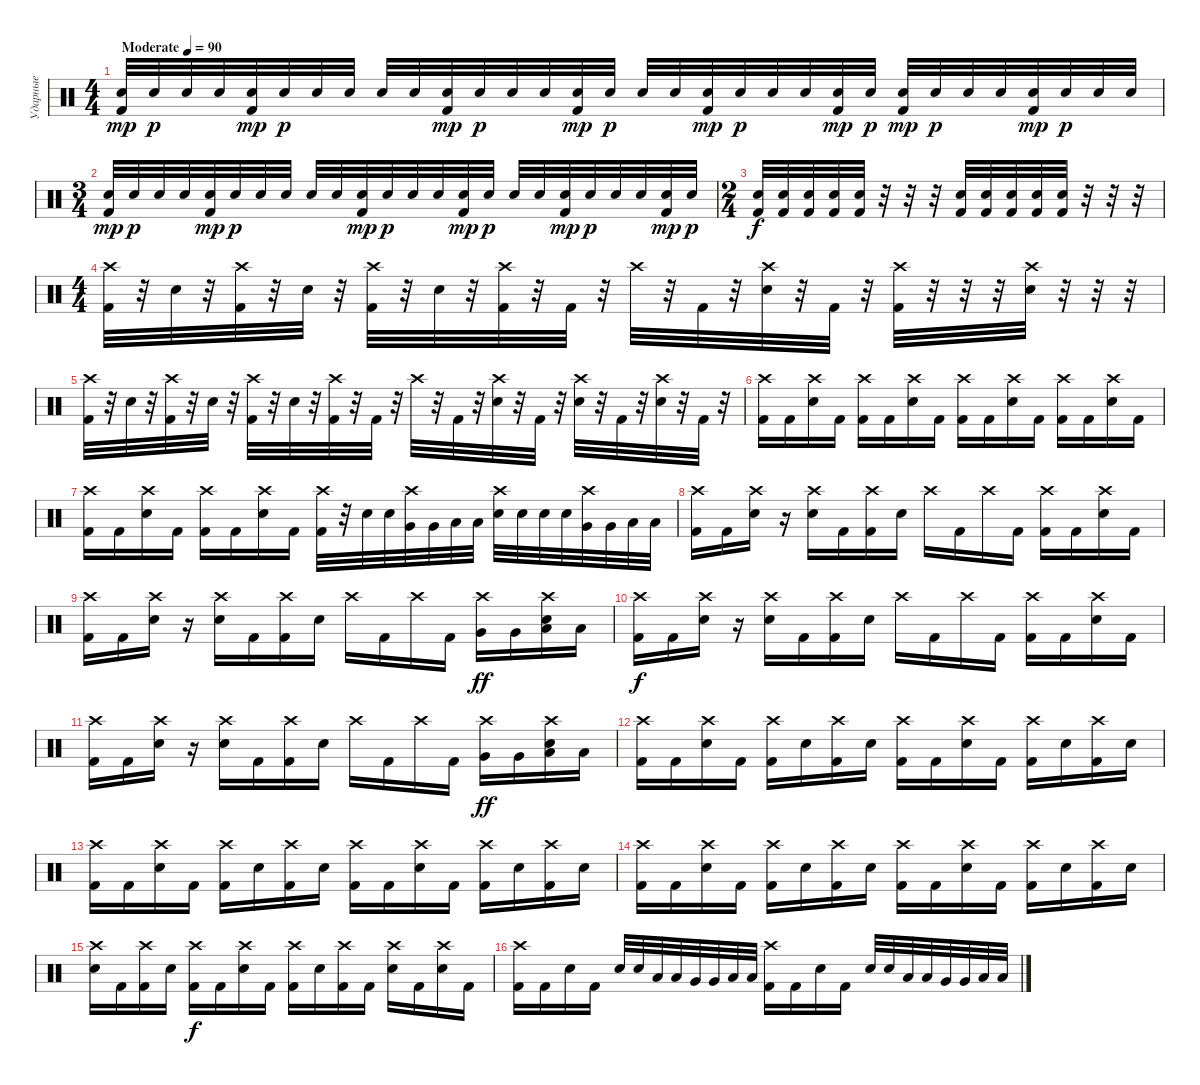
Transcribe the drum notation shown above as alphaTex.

\track ("Ударные" "Ударные") {instrument percussion}
\staff {score}
\articulation defaults
\ts (4 4)
\tempo (90 "Moderate")
\clef neutral
\ks c
("Snare (hit) 2" "Kick (hit) 2").32{dy mp} "Snare (hit) 2".32{dy p} "Snare (hit) 2".32 "Snare (hit) 2".32 ("Snare (hit) 2" "Kick (hit) 2").32{dy mp} "Snare (hit) 2".32{dy p} "Snare (hit) 2".32 "Snare (hit) 2".32 "Snare (hit) 2".32 "Snare (hit) 2".32 ("Snare (hit) 2" "Kick (hit) 2").32{dy mp} "Snare (hit) 2".32{dy p} "Snare (hit) 2".32 "Snare (hit) 2".32 ("Snare (hit) 2" "Kick (hit) 2").32{dy mp} "Snare (hit) 2".32{dy p} "Snare (hit) 2".32 "Snare (hit) 2".32 ("Snare (hit) 2" "Kick (hit) 2").32{dy mp} "Snare (hit) 2".32{dy p} "Snare (hit) 2".32 "Snare (hit) 2".32 ("Snare (hit) 2" "Kick (hit) 2").32{dy mp} "Snare (hit) 2".32{dy p} ("Snare (hit) 2" "Kick (hit) 2").32{dy mp} "Snare (hit) 2".32{dy p} "Snare (hit) 2".32 "Snare (hit) 2".32 ("Snare (hit) 2" "Kick (hit) 2").32{dy mp} "Snare (hit) 2".32{dy p} "Snare (hit) 2".32 "Snare (hit) 2".32 |
\ts (3 4)
("Snare (hit) 2" "Kick (hit) 2").32{dy mp} "Snare (hit) 2".32{dy p} "Snare (hit) 2".32 "Snare (hit) 2".32 ("Snare (hit) 2" "Kick (hit) 2").32{dy mp} "Snare (hit) 2".32{dy p} "Snare (hit) 2".32 "Snare (hit) 2".32 "Snare (hit) 2".32 "Snare (hit) 2".32 ("Snare (hit) 2" "Kick (hit) 2").32{dy mp} "Snare (hit) 2".32{dy p} "Snare (hit) 2".32 "Snare (hit) 2".32 ("Snare (hit) 2" "Kick (hit) 2").32{dy mp} "Snare (hit) 2".32{dy p} "Snare (hit) 2".32 "Snare (hit) 2".32 ("Snare (hit) 2" "Kick (hit) 2").32{dy mp} "Snare (hit) 2".32{dy p} "Snare (hit) 2".32 "Snare (hit) 2".32 ("Snare (hit) 2" "Kick (hit) 2").32{dy mp} "Snare (hit) 2".32{dy p} |
\ts (2 4)
("Kick (hit) 2" "Snare (hit) 2").32{dy f} ("Kick (hit) 2" "Snare (hit) 2").32 ("Kick (hit) 2" "Snare (hit) 2").32 ("Kick (hit) 2" "Snare (hit) 2").32 ("Kick (hit) 2" "Snare (hit) 2").32 r.32 r.32 r.32 ("Kick (hit) 2" "Snare (hit) 2").32 ("Kick (hit) 2" "Snare (hit) 2").32 ("Kick (hit) 2" "Snare (hit) 2").32 ("Kick (hit) 2" "Snare (hit) 2").32 ("Kick (hit) 2" "Snare (hit) 2").32 r.32 r.32 r.32 |
\ts (4 4)
("Crash high (hit)" "Kick (hit) 2").32 r.32 "Snare (hit) 2".32 r.32 ("Crash high (hit)" "Kick (hit) 2").32 r.32 "Snare (hit) 2".32 r.32 ("Crash high (hit)" "Kick (hit) 2").32 r.32 "Snare (hit) 2".32 r.32 ("Crash high (hit)" "Kick (hit) 2").32 r.32 "Kick (hit) 2".32 r.32 "Crash high (hit)".32 r.32 "Kick (hit) 2".32 r.32 ("Crash high (hit)" "Snare (hit) 2").32 r.32 "Kick (hit) 2".32 r.32 ("Crash high (hit)" "Kick (hit) 2").32 r.32 r.32 r.32 ("Crash high (hit)" "Snare (hit) 2").32 r.32 r.32 r.32 |
("Crash high (hit)" "Kick (hit) 2").32 r.32 "Snare (hit) 2".32 r.32 ("Crash high (hit)" "Kick (hit) 2").32 r.32 "Snare (hit) 2".32 r.32 ("Crash high (hit)" "Kick (hit) 2").32 r.32 "Snare (hit) 2".32 r.32 ("Crash high (hit)" "Kick (hit) 2").32 r.32 "Kick (hit) 2".32 r.32 "Crash high (hit)".32 r.32 "Kick (hit) 2".32 r.32 ("Crash high (hit)" "Snare (hit) 2").32 r.32 "Kick (hit) 2".32 r.32 ("Crash high (hit)" "Snare (hit) 2").32 r.32 "Kick (hit) 2".32 r.32 ("Crash high (hit)" "Snare (hit) 2").32 r.32 "Kick (hit) 2".32 r.32 |
("Crash high (hit)" "Kick (hit) 2").16 "Kick (hit) 2".16 ("Crash high (hit)" "Snare (hit) 2").16 "Kick (hit) 2".16 ("Crash high (hit)" "Kick (hit) 2").16 "Kick (hit) 2".16 ("Crash high (hit)" "Snare (hit) 2").16 "Kick (hit) 2".16 ("Crash high (hit)" "Kick (hit) 2").16 "Kick (hit) 2".16 ("Crash high (hit)" "Snare (hit) 2").16 "Kick (hit) 2".16 ("Crash high (hit)" "Kick (hit) 2").16 "Kick (hit) 2".16 ("Crash high (hit)" "Snare (hit) 2").16 "Kick (hit) 2".16 |
("Crash high (hit)" "Kick (hit) 2").16 "Kick (hit) 2".16 ("Crash high (hit)" "Snare (hit) 2").16 "Kick (hit) 2".16 ("Crash high (hit)" "Kick (hit) 2").16 "Kick (hit) 2".16 ("Crash high (hit)" "Snare (hit) 2").16 "Kick (hit) 2".16 ("Crash high (hit)" "Kick (hit) 2").32 r.32 "Snare (hit) 2".32 "Snare (hit) 2".32 ("Crash high (hit)" "Very Low Tom (hit)").32 "Very Low Tom (hit)".32 "Low Floor Tom (hit)".32 "Low Floor Tom (hit)".32 ("Crash high (hit)" "Snare (hit) 2").32 "Snare (hit) 2".32 "Snare (hit) 2".32 "Snare (hit) 2".32 ("Crash high (hit)" "Very Low Tom (hit)").32 "Very Low Tom (hit)".32 "Low Floor Tom (hit)".32 "Low Floor Tom (hit)".32 |
("Crash high (hit)" "Kick (hit) 2").16 "Kick (hit) 2".16 ("Crash high (hit)" "Snare (hit) 2").16 r.16 ("Crash high (hit)" "Snare (hit) 2").16 "Kick (hit) 2".16 ("Crash high (hit)" "Kick (hit) 2").16 "Snare (hit) 2".16 "Crash high (hit)".16 "Kick (hit) 2".16 "Crash high (hit)".16 "Kick (hit) 2".16 ("Crash high (hit)" "Kick (hit) 2").16 "Kick (hit) 2".16 ("Crash high (hit)" "Snare (hit) 2").16 "Kick (hit) 2".16 |
("Crash high (hit)" "Kick (hit) 2").16 "Kick (hit) 2".16 ("Crash high (hit)" "Snare (hit) 2").16 r.16 ("Crash high (hit)" "Snare (hit) 2").16 "Kick (hit) 2".16 ("Crash high (hit)" "Kick (hit) 2").16 "Snare (hit) 2".16 "Crash high (hit)".16 "Kick (hit) 2".16 "Crash high (hit)".16 "Kick (hit) 2".16 ("Crash high (hit)" "Very Low Tom (hit)").16{dy ff} "Very Low Tom (hit)".16 ("Crash high (hit)" "Low Floor Tom (hit)" "Snare (hit) 2").16 "Low Floor Tom (hit)".16 |
("Crash high (hit)" "Kick (hit) 2").16{dy f} "Kick (hit) 2".16 ("Crash high (hit)" "Snare (hit) 2").16 r.16 ("Crash high (hit)" "Snare (hit) 2").16 "Kick (hit) 2".16 ("Crash high (hit)" "Kick (hit) 2").16 "Snare (hit) 2".16 "Crash high (hit)".16 "Kick (hit) 2".16 "Crash high (hit)".16 "Kick (hit) 2".16 ("Crash high (hit)" "Kick (hit) 2").16 "Kick (hit) 2".16 ("Crash high (hit)" "Snare (hit) 2").16 "Kick (hit) 2".16 |
("Crash high (hit)" "Kick (hit) 2").16 "Kick (hit) 2".16 ("Crash high (hit)" "Snare (hit) 2").16 r.16 ("Crash high (hit)" "Snare (hit) 2").16 "Kick (hit) 2".16 ("Crash high (hit)" "Kick (hit) 2").16 "Snare (hit) 2".16 "Crash high (hit)".16 "Kick (hit) 2".16 "Crash high (hit)".16 "Kick (hit) 2".16 ("Crash high (hit)" "Very Low Tom (hit)").16{dy ff} "Very Low Tom (hit)".16 ("Crash high (hit)" "Low Floor Tom (hit)" "Snare (hit) 2").16 "Low Floor Tom (hit)".16 |
("Crash high (hit)" "Kick (hit) 2").16 "Kick (hit) 2".16 ("Crash high (hit)" "Snare (hit) 2").16 "Kick (hit) 2".16 ("Crash high (hit)" "Kick (hit) 2").16 "Snare (hit) 2".16 ("Crash high (hit)" "Kick (hit) 2").16 "Snare (hit) 2".16 ("Crash high (hit)" "Kick (hit) 2").16 "Kick (hit) 2".16 ("Crash high (hit)" "Snare (hit) 2").16 "Kick (hit) 2".16 ("Crash high (hit)" "Kick (hit) 2").16 "Snare (hit) 2".16 ("Crash high (hit)" "Kick (hit) 2").16 "Snare (hit) 2".16 |
("Crash high (hit)" "Kick (hit) 2").16 "Kick (hit) 2".16 ("Crash high (hit)" "Snare (hit) 2").16 "Kick (hit) 2".16 ("Crash high (hit)" "Kick (hit) 2").16 "Snare (hit) 2".16 ("Crash high (hit)" "Kick (hit) 2").16 "Snare (hit) 2".16 ("Crash high (hit)" "Kick (hit) 2").16 "Kick (hit) 2".16 ("Crash high (hit)" "Snare (hit) 2").16 "Kick (hit) 2".16 ("Crash high (hit)" "Kick (hit) 2").16 "Snare (hit) 2".16 ("Crash high (hit)" "Kick (hit) 2").16 "Snare (hit) 2".16 |
("Crash high (hit)" "Kick (hit) 2").16 "Kick (hit) 2".16 ("Crash high (hit)" "Snare (hit) 2").16 "Kick (hit) 2".16 ("Crash high (hit)" "Kick (hit) 2").16 "Snare (hit) 2".16 ("Crash high (hit)" "Kick (hit) 2").16 "Snare (hit) 2".16 ("Crash high (hit)" "Kick (hit) 2").16 "Kick (hit) 2".16 ("Crash high (hit)" "Snare (hit) 2").16 "Kick (hit) 2".16 ("Crash high (hit)" "Kick (hit) 2").16 "Snare (hit) 2".16 ("Crash high (hit)" "Kick (hit) 2").16 "Snare (hit) 2".16 |
("Crash high (hit)" "Snare (hit) 2").16 "Kick (hit) 2".16 ("Crash high (hit)" "Kick (hit) 2").16 "Snare (hit) 2".16 ("Crash high (hit)" "Kick (hit) 2").16{dy f} "Kick (hit) 2".16 ("Crash high (hit)" "Snare (hit) 2").16 "Kick (hit) 2".16 ("Crash high (hit)" "Kick (hit) 2").16 "Snare (hit) 2".16 ("Crash high (hit)" "Kick (hit) 2").16 "Kick (hit) 2".16 ("Crash high (hit)" "Snare (hit) 2").16 "Kick (hit) 2".16 ("Crash high (hit)" "Snare (hit) 2").16 "Kick (hit) 2".16 |
("Crash high (hit)" "Kick (hit) 2").16 "Kick (hit) 2".16 "Snare (hit) 2".16 "Kick (hit) 2".16 "Snare (hit) 2".32 "Snare (hit) 2".32 "Low Tom (hit)".32 "Low Tom (hit)".32 "Very Low Tom (hit)".32 "Very Low Tom (hit)".32 "Low Floor Tom (hit)".32 "Low Floor Tom (hit)".32 ("Crash high (hit)" "Kick (hit) 2").16 "Kick (hit) 2".16 "Snare (hit) 2".16 "Kick (hit) 2".16 "Snare (hit) 2".32 "Snare (hit) 2".32 "Low Tom (hit)".32 "Low Tom (hit)".32 "Very Low Tom (hit)".32 "Very Low Tom (hit)".32 "Low Floor Tom (hit)".32 "Low Floor Tom (hit)".32
